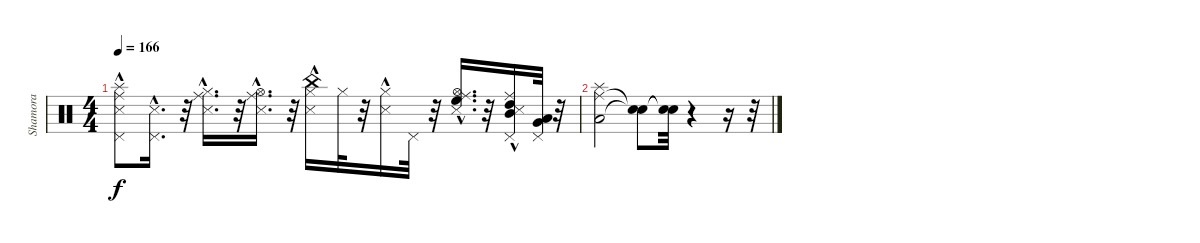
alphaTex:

\track ("Shamora" "Shamora") {instrument percussion}
\staff {score}
\articulation defaults
\ts (4 4)
\tempo 166
\clef neutral
\ks c
("Snare (side stick) 3"{hac} "Ride (middle)"{hac} "Pedal Hi-Hat (hit)"{hac} "Splash (hit)").8{dy f} ("Pedal Hi-Hat (hit)"{hac} "Snare (side stick) 3"{hac}).16{d} r.32 ("Ride (middle)"{hac} "Hi-Hat (closed)"{hac} "Snare (side stick) 3"{hac}).16{d} r.32 ("Ride (middle)"{hac} "Hi-Hat (open)"{hac} "Snare (side stick) 3"{hac}).16{d} r.32 ("Hi-Hat (closed)" "China (hit)" "Snare (side stick) 3"{hac}).16 "Hi-Hat (closed)".32 r.32 ("Hi-Hat (closed)" "Snare (side stick) 3"{hac}).16 "Pedal Hi-Hat (hit)".32 r.32 ("Ride (middle)"{hac} "High Floor Tom (hit)" "Hi-Hat (open)"{hac} "Snare (side stick) 3"{hac}).16{d} r.32 ("Ride (middle)"{hac} "Mid Tom (hit)" "High Tom (hit)" "Pedal Hi-Hat (hit)" "Snare (side stick) 3"{hac}).16 ("Very Low Tom (hit)" "Low Tom (hit)" "Pedal Hi-Hat (hit)").32 r.32 |
("Low Floor Tom (hit)" "Ride (middle)" "Splash (hit)").2 ("Snare (hit)"{t} "Snare (hit)"{t}).8 ("Snare (hit)"{t} "Snare (hit)"{t}).32 r.4 r.16 r.32
